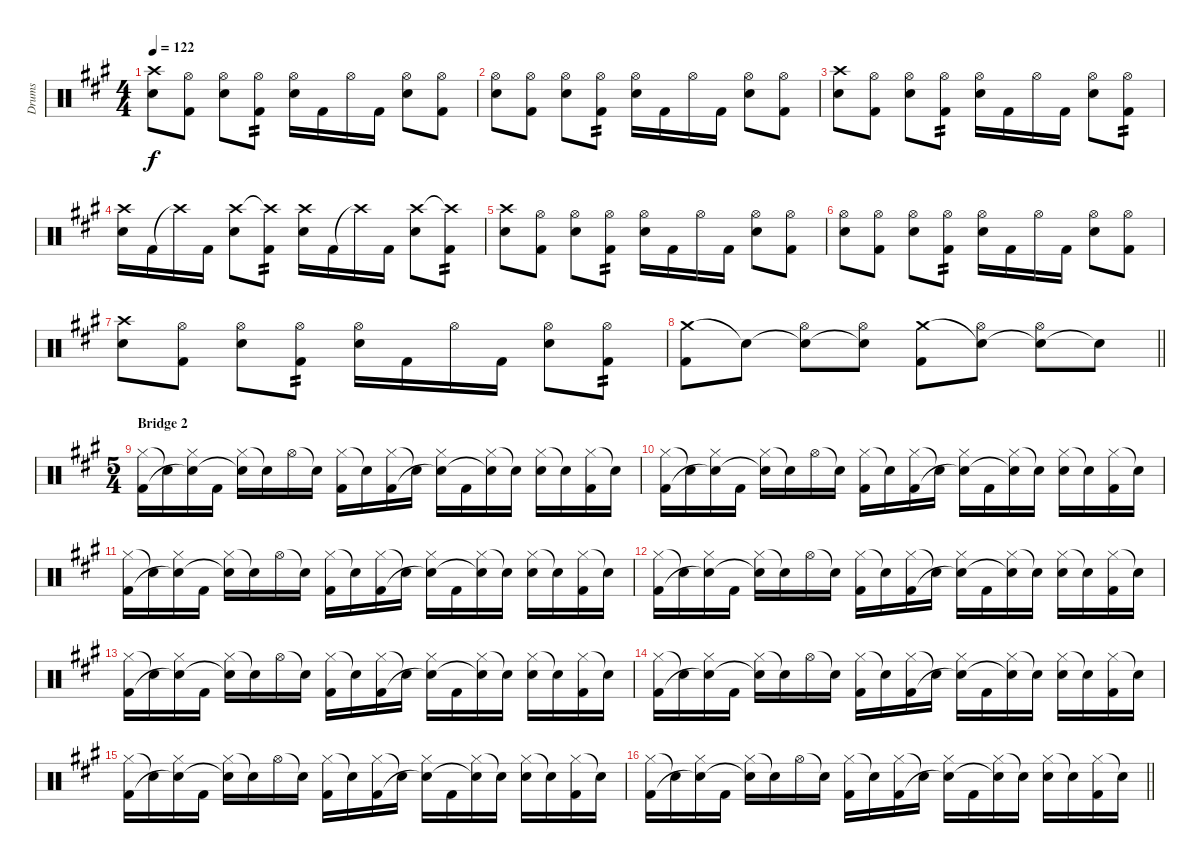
\track ("Drums" "Drums") {instrument percussion}
\staff {score}
\articulation defaults
\ts (4 4)
\tempo 122
\clef neutral
\ks f#minor
("Crash high (hit)" "Snare (hit) 2").8{dy f} ("Hi-Hat (open)" "Kick (hit) 2").8 ("Hi-Hat (open)" "Snare (hit) 2").8 ("Hi-Hat (open)" "Kick (hit) 2").8{tp 2} ("Hi-Hat (open)" "Snare (hit) 2").16 "Kick (hit) 2".16 "Hi-Hat (open)".16 "Kick (hit) 2".16 ("Hi-Hat (open)" "Snare (hit) 2").8 ("Hi-Hat (open)" "Kick (hit) 2").8 |
("Hi-Hat (open)" "Snare (hit) 2").8 ("Hi-Hat (open)" "Kick (hit) 2").8 ("Hi-Hat (open)" "Snare (hit) 2").8 ("Hi-Hat (open)" "Kick (hit) 2").8{tp 2} ("Hi-Hat (open)" "Snare (hit) 2").16 "Kick (hit) 2".16 "Hi-Hat (open)".16 "Kick (hit) 2".16 ("Hi-Hat (open)" "Snare (hit) 2").8 ("Hi-Hat (open)" "Kick (hit) 2").8 |
("Crash high (hit)" "Snare (hit) 2").8 ("Hi-Hat (open)" "Kick (hit) 2").8 ("Hi-Hat (open)" "Snare (hit) 2").8 ("Hi-Hat (open)" "Kick (hit) 2").8{tp 2} ("Hi-Hat (open)" "Snare (hit) 2").16 "Kick (hit) 2".16 "Hi-Hat (open)".16 "Kick (hit) 2".16 ("Hi-Hat (open)" "Snare (hit) 2").8 ("Hi-Hat (open)" "Kick (hit) 2").8{tp 2} |
("Crash high (hit)" "Snare (hit) 2").16 "Kick (hit) 2".16 "Crash high (hit)"{t}.16 "Kick (hit) 2".16 ("Crash high (hit)" "Snare (hit) 2").8 ("Crash high (hit)"{t} "Kick (hit) 2").8{tp 2} ("Crash high (hit)" "Snare (hit) 2").16 "Kick (hit) 2".16 "Crash high (hit)"{t}.16 "Kick (hit) 2".16 ("Crash high (hit)" "Snare (hit) 2").8 ("Crash high (hit)"{t} "Kick (hit) 2").8{tp 2} |
("Crash high (hit)" "Snare (hit) 2").8 ("Hi-Hat (open)" "Kick (hit) 2").8 ("Hi-Hat (open)" "Snare (hit) 2").8 ("Hi-Hat (open)" "Kick (hit) 2").8{tp 2} ("Hi-Hat (open)" "Snare (hit) 2").16 "Kick (hit) 2".16 "Hi-Hat (open)".16 "Kick (hit) 2".16 ("Hi-Hat (open)" "Snare (hit) 2").8 ("Hi-Hat (open)" "Kick (hit) 2").8 |
("Hi-Hat (open)" "Snare (hit) 2").8 ("Hi-Hat (open)" "Kick (hit) 2").8 ("Hi-Hat (open)" "Snare (hit) 2").8 ("Hi-Hat (open)" "Kick (hit) 2").8{tp 2} ("Hi-Hat (open)" "Snare (hit) 2").16 "Kick (hit) 2".16 "Hi-Hat (open)".16 "Kick (hit) 2".16 ("Hi-Hat (open)" "Snare (hit) 2").8 ("Hi-Hat (open)" "Kick (hit) 2").8 |
("Crash high (hit)" "Snare (hit) 2").8 ("Hi-Hat (open)" "Kick (hit) 2").8 ("Hi-Hat (open)" "Snare (hit) 2").8 ("Hi-Hat (open)" "Kick (hit) 2").8{tp 2} ("Hi-Hat (open)" "Snare (hit) 2").16 "Kick (hit) 2".16 "Hi-Hat (open)".16 "Kick (hit) 2".16 ("Hi-Hat (open)" "Snare (hit) 2").8 ("Hi-Hat (open)" "Kick (hit) 2").8{tp 2} |
\barLineRight lightlight
("Crash medium (hit)" "Kick (hit) 2").8 "Snare (hit)"{t}.8 ("Snare (hit)"{t} "Hi-Hat (open)").8 ("Snare (hit)"{t} "Hi-Hat (open)").8 ("Crash medium (hit)" "Kick (hit) 2").8 ("Snare (hit)"{t} "Hi-Hat (open)").8 ("Snare (hit)"{t} "Hi-Hat (open)").8 "Snare (hit)"{t}.8 |
\ts (5 4)
\section ("" "Bridge 2")
("Hi-Hat (closed)" "Kick (hit) 2").16 "Snare (hit)"{t}.16 ("Hi-Hat (closed)" "Snare (hit)"{t}).16 "Kick (hit) 2".16 ("Hi-Hat (closed)" "Snare (hit)"{t}).16 "Snare (hit)"{t}.16 "Hi-Hat (open)".16 "Snare (hit)"{t}.16 ("Hi-Hat (closed)" "Kick (hit) 2").16 "Snare (hit)"{t}.16 ("Hi-Hat (closed)" "Kick (hit) 2").16 "Snare (hit)"{t}.16 ("Hi-Hat (closed)" "Snare (hit)"{t}).16 "Kick (hit) 2".16 ("Hi-Hat (closed)" "Snare (hit)"{t}).16 "Snare (hit)"{t}.16 ("Hi-Hat (closed)" "Snare (hit) 2").16 "Snare (hit)"{t}.16 ("Hi-Hat (closed)" "Kick (hit) 2").16 "Snare (hit)"{t}.16 |
("Hi-Hat (closed)" "Kick (hit) 2").16 "Snare (hit)"{t}.16 ("Hi-Hat (closed)" "Snare (hit)"{t}).16 "Kick (hit) 2".16 ("Hi-Hat (closed)" "Snare (hit)"{t}).16 "Snare (hit)"{t}.16 "Hi-Hat (open)".16 "Snare (hit)"{t}.16 ("Hi-Hat (closed)" "Kick (hit) 2").16 "Snare (hit)"{t}.16 ("Hi-Hat (closed)" "Kick (hit) 2").16 "Snare (hit)"{t}.16 ("Hi-Hat (closed)" "Snare (hit)"{t}).16 "Kick (hit) 2".16 ("Hi-Hat (closed)" "Snare (hit)"{t}).16 "Snare (hit)"{t}.16 ("Hi-Hat (closed)" "Snare (hit) 2").16 "Snare (hit)"{t}.16 ("Hi-Hat (closed)" "Kick (hit) 2").16 "Snare (hit)"{t}.16 |
("Hi-Hat (closed)" "Kick (hit) 2").16 "Snare (hit)"{t}.16 ("Hi-Hat (closed)" "Snare (hit)"{t}).16 "Kick (hit) 2".16 ("Hi-Hat (closed)" "Snare (hit)"{t}).16 "Snare (hit)"{t}.16 "Hi-Hat (open)".16 "Snare (hit)"{t}.16 ("Hi-Hat (closed)" "Kick (hit) 2").16 "Snare (hit)"{t}.16 ("Hi-Hat (closed)" "Kick (hit) 2").16 "Snare (hit)"{t}.16 ("Hi-Hat (closed)" "Snare (hit)"{t}).16 "Kick (hit) 2".16 ("Hi-Hat (closed)" "Snare (hit)"{t}).16 "Snare (hit)"{t}.16 ("Hi-Hat (closed)" "Snare (hit) 2").16 "Snare (hit)"{t}.16 ("Hi-Hat (closed)" "Kick (hit) 2").16 "Snare (hit)"{t}.16 |
("Hi-Hat (closed)" "Kick (hit) 2").16 "Snare (hit)"{t}.16 ("Hi-Hat (closed)" "Snare (hit)"{t}).16 "Kick (hit) 2".16 ("Hi-Hat (closed)" "Snare (hit)"{t}).16 "Snare (hit)"{t}.16 "Hi-Hat (open)".16 "Snare (hit)"{t}.16 ("Hi-Hat (closed)" "Kick (hit) 2").16 "Snare (hit)"{t}.16 ("Hi-Hat (closed)" "Kick (hit) 2").16 "Snare (hit)"{t}.16 ("Hi-Hat (closed)" "Snare (hit)"{t}).16 "Kick (hit) 2".16 ("Hi-Hat (closed)" "Snare (hit)"{t}).16 "Snare (hit)"{t}.16 ("Hi-Hat (closed)" "Snare (hit) 2").16 "Snare (hit)"{t}.16 ("Hi-Hat (closed)" "Kick (hit) 2").16 "Snare (hit)"{t}.16 |
("Hi-Hat (closed)" "Kick (hit) 2").16 "Snare (hit)"{t}.16 ("Hi-Hat (closed)" "Snare (hit)"{t}).16 "Kick (hit) 2".16 ("Hi-Hat (closed)" "Snare (hit)"{t}).16 "Snare (hit)"{t}.16 "Hi-Hat (open)".16 "Snare (hit)"{t}.16 ("Hi-Hat (closed)" "Kick (hit) 2").16 "Snare (hit)"{t}.16 ("Hi-Hat (closed)" "Kick (hit) 2").16 "Snare (hit)"{t}.16 ("Hi-Hat (closed)" "Snare (hit)"{t}).16 "Kick (hit) 2".16 ("Hi-Hat (closed)" "Snare (hit)"{t}).16 "Snare (hit)"{t}.16 ("Hi-Hat (closed)" "Snare (hit) 2").16 "Snare (hit)"{t}.16 ("Hi-Hat (closed)" "Kick (hit) 2").16 "Snare (hit)"{t}.16 |
("Hi-Hat (closed)" "Kick (hit) 2").16 "Snare (hit)"{t}.16 ("Hi-Hat (closed)" "Snare (hit)"{t}).16 "Kick (hit) 2".16 ("Hi-Hat (closed)" "Snare (hit)"{t}).16 "Snare (hit)"{t}.16 "Hi-Hat (open)".16 "Snare (hit)"{t}.16 ("Hi-Hat (closed)" "Kick (hit) 2").16 "Snare (hit)"{t}.16 ("Hi-Hat (closed)" "Kick (hit) 2").16 "Snare (hit)"{t}.16 ("Hi-Hat (closed)" "Snare (hit)"{t}).16 "Kick (hit) 2".16 ("Hi-Hat (closed)" "Snare (hit)"{t}).16 "Snare (hit)"{t}.16 ("Hi-Hat (closed)" "Snare (hit) 2").16 "Snare (hit)"{t}.16 ("Hi-Hat (closed)" "Kick (hit) 2").16 "Snare (hit)"{t}.16 |
("Hi-Hat (closed)" "Kick (hit) 2").16 "Snare (hit)"{t}.16 ("Hi-Hat (closed)" "Snare (hit)"{t}).16 "Kick (hit) 2".16 ("Hi-Hat (closed)" "Snare (hit)"{t}).16 "Snare (hit)"{t}.16 "Hi-Hat (open)".16 "Snare (hit)"{t}.16 ("Hi-Hat (closed)" "Kick (hit) 2").16 "Snare (hit)"{t}.16 ("Hi-Hat (closed)" "Kick (hit) 2").16 "Snare (hit)"{t}.16 ("Hi-Hat (closed)" "Snare (hit)"{t}).16 "Kick (hit) 2".16 ("Hi-Hat (closed)" "Snare (hit)"{t}).16 "Snare (hit)"{t}.16 ("Hi-Hat (closed)" "Snare (hit) 2").16 "Snare (hit)"{t}.16 ("Hi-Hat (closed)" "Kick (hit) 2").16 "Snare (hit)"{t}.16 |
\barLineRight lightlight
("Hi-Hat (closed)" "Kick (hit) 2").16 "Snare (hit)"{t}.16 ("Hi-Hat (closed)" "Snare (hit)"{t}).16 "Kick (hit) 2".16 ("Hi-Hat (closed)" "Snare (hit)"{t}).16 "Snare (hit)"{t}.16 "Hi-Hat (open)".16 "Snare (hit)"{t}.16 ("Hi-Hat (closed)" "Kick (hit) 2").16 "Snare (hit)"{t}.16 ("Hi-Hat (closed)" "Kick (hit) 2").16 "Snare (hit)"{t}.16 ("Hi-Hat (closed)" "Snare (hit)"{t}).16 "Kick (hit) 2".16 ("Hi-Hat (closed)" "Snare (hit)"{t}).16 "Snare (hit)"{t}.16 ("Hi-Hat (closed)" "Snare (hit) 2").16 "Snare (hit)"{t}.16 ("Hi-Hat (closed)" "Kick (hit) 2").16 "Snare (hit)"{t}.16
